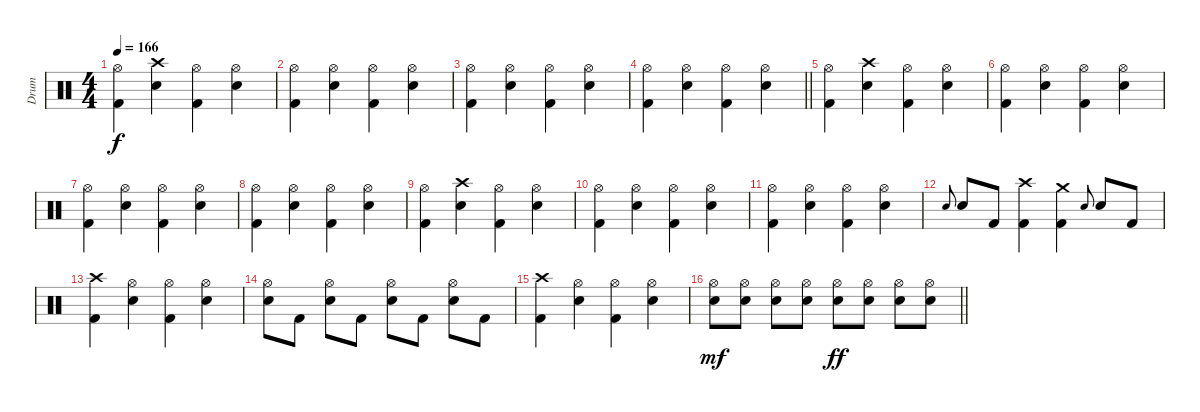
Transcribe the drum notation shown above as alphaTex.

\track ("Drum" "Drum") {instrument percussion}
\staff {score}
\articulation defaults
\ts (4 4)
\tempo 166
\clef neutral
\ks c
("Hi-Hat (open)" "Kick (hit) 2").4{dy f} ("Crash high (hit)" "Snare (hit) 2").4 ("Hi-Hat (open)" "Kick (hit) 2").4 ("Hi-Hat (open)" "Snare (hit) 2").4 |
("Hi-Hat (open)" "Kick (hit) 2").4 ("Hi-Hat (open)" "Snare (hit) 2").4 ("Hi-Hat (open)" "Kick (hit) 2").4 ("Hi-Hat (open)" "Snare (hit) 2").4 |
("Hi-Hat (open)" "Kick (hit) 2").4 ("Hi-Hat (open)" "Snare (hit) 2").4 ("Hi-Hat (open)" "Kick (hit) 2").4 ("Hi-Hat (open)" "Snare (hit) 2").4 |
\barLineRight lightlight
("Hi-Hat (open)" "Kick (hit) 2").4 ("Hi-Hat (open)" "Snare (hit) 2").4 ("Hi-Hat (open)" "Kick (hit) 2").4 ("Hi-Hat (open)" "Snare (hit) 2").4 |
("Hi-Hat (open)" "Kick (hit) 2").4 ("Crash high (hit)" "Snare (hit) 2").4 ("Hi-Hat (open)" "Kick (hit) 2").4 ("Hi-Hat (open)" "Snare (hit) 2").4 |
("Hi-Hat (open)" "Kick (hit) 2").4 ("Hi-Hat (open)" "Snare (hit) 2").4 ("Hi-Hat (open)" "Kick (hit) 2").4 ("Hi-Hat (open)" "Snare (hit) 2").4 |
("Hi-Hat (open)" "Kick (hit) 2").4 ("Hi-Hat (open)" "Snare (hit) 2").4 ("Hi-Hat (open)" "Kick (hit) 2").4 ("Hi-Hat (open)" "Snare (hit) 2").4 |
("Hi-Hat (open)" "Kick (hit) 2").4 ("Hi-Hat (open)" "Snare (hit) 2").4 ("Hi-Hat (open)" "Kick (hit) 2").4 ("Hi-Hat (open)" "Snare (hit) 2").4 |
("Hi-Hat (open)" "Kick (hit) 2").4 ("Crash high (hit)" "Snare (hit) 2").4 ("Hi-Hat (open)" "Kick (hit) 2").4 ("Hi-Hat (open)" "Snare (hit) 2").4 |
("Hi-Hat (open)" "Kick (hit) 2").4 ("Hi-Hat (open)" "Snare (hit) 2").4 ("Hi-Hat (open)" "Kick (hit) 2").4 ("Hi-Hat (open)" "Snare (hit) 2").4 |
("Hi-Hat (open)" "Kick (hit) 2").4 ("Hi-Hat (open)" "Snare (hit) 2").4 ("Hi-Hat (open)" "Kick (hit) 2").4 ("Hi-Hat (open)" "Snare (hit) 2").4 |
"Snare (hit) 2".8{gr onbeat} "Snare (hit) 2".8 "Kick (hit) 2".8 ("Crash high (hit)" "Kick (hit) 2").4 ("Crash medium (hit)" "Kick (hit) 2").4 "Snare (hit) 2".8{gr onbeat} "Snare (hit) 2".8 "Kick (hit) 2".8 |
("Crash high (hit)" "Kick (hit) 2").4 ("Hi-Hat (open)" "Snare (hit) 2").4 ("Hi-Hat (open)" "Kick (hit) 2").4 ("Hi-Hat (open)" "Snare (hit) 2").4 |
("Hi-Hat (open)" "Snare (hit) 2").8 "Kick (hit) 2".8 ("Hi-Hat (open)" "Snare (hit) 2").8 "Kick (hit) 2".8 ("Hi-Hat (open)" "Snare (hit) 2").8 "Kick (hit) 2".8 ("Hi-Hat (open)" "Snare (hit) 2").8 "Kick (hit) 2".8 |
("Crash high (hit)" "Kick (hit) 2").4 ("Hi-Hat (open)" "Snare (hit) 2").4 ("Hi-Hat (open)" "Kick (hit) 2").4 ("Hi-Hat (open)" "Snare (hit) 2").4 |
\barLineRight lightlight
("Hi-Hat (open)" "Snare (hit) 2").8{dy mf} ("Hi-Hat (open)" "Snare (hit) 2").8 ("Hi-Hat (open)" "Snare (hit) 2").8 ("Hi-Hat (open)" "Snare (hit) 2").8 ("Hi-Hat (open)" "Snare (hit) 2").8{dy ff} ("Hi-Hat (open)" "Snare (hit) 2").8 ("Hi-Hat (open)" "Snare (hit) 2").8 ("Hi-Hat (open)" "Snare (hit) 2").8
